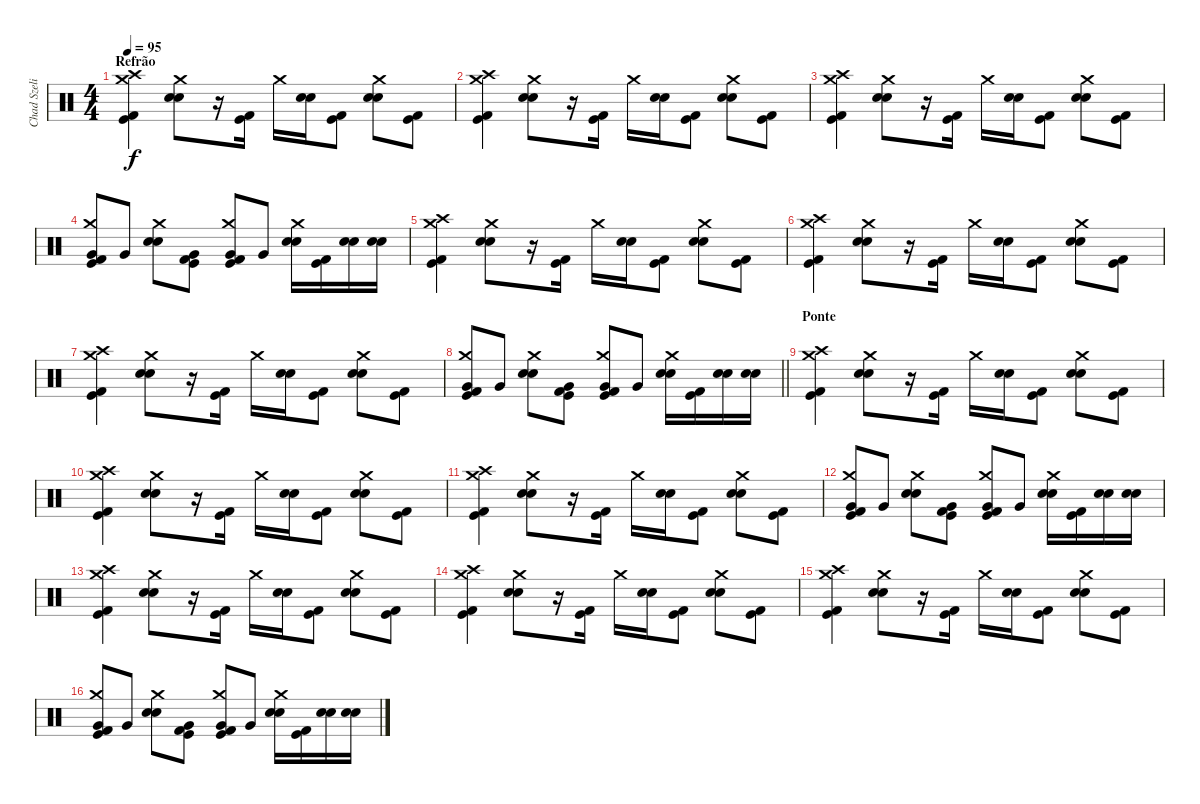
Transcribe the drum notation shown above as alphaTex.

\track ("Chad Szeliga" "Chad Szeli") {instrument percussion}
\staff {score}
\articulation defaults
\ts (4 4)
\section ("" "Refrão")
\tempo 95
\clef neutral
\ks c
("Crash high (hit)" "Kick (hit) 2" "Kick (hit)" "Crash medium (hit)").4{dy f} ("Crash medium (hit)" "Snare (hit) 2" "Snare (hit) 2").8 r.16 ("Kick (hit) 2" "Kick (hit)").16{beam Down} "Crash medium (hit)".16 ("Snare (hit) 2" "Snare (hit) 2").16 ("Kick (hit) 2" "Kick (hit)").8 ("Crash medium (hit)" "Snare (hit) 2" "Snare (hit) 2").8 ("Kick (hit) 2" "Kick (hit)").8 |
("Crash high (hit)" "Kick (hit) 2" "Kick (hit)" "Crash medium (hit)").4 ("Crash medium (hit)" "Snare (hit) 2" "Snare (hit) 2").8 r.16 ("Kick (hit) 2" "Kick (hit)").16{beam Down} "Crash medium (hit)".16 ("Snare (hit) 2" "Snare (hit) 2").16 ("Kick (hit) 2" "Kick (hit)").8 ("Crash medium (hit)" "Snare (hit) 2" "Snare (hit) 2").8 ("Kick (hit) 2" "Kick (hit)").8 |
("Crash high (hit)" "Kick (hit) 2" "Kick (hit)" "Crash medium (hit)").4 ("Crash medium (hit)" "Snare (hit) 2" "Snare (hit) 2").8 r.16 ("Kick (hit) 2" "Kick (hit)").16{beam Down} "Crash medium (hit)".16 ("Snare (hit) 2" "Snare (hit) 2").16 ("Kick (hit) 2" "Kick (hit)").8 ("Crash medium (hit)" "Snare (hit) 2" "Snare (hit) 2").8 ("Kick (hit) 2" "Kick (hit)").8 |
("Crash medium (hit)" "Kick (hit) 2" "Kick (hit)" "Very Low Tom (hit)").8 "Very Low Tom (hit)".8 ("Crash medium (hit)" "Snare (hit) 2" "Snare (hit) 2").8 ("Kick (hit) 2" "Kick (hit)" "Very Low Tom (hit)").8 ("Crash medium (hit)" "Kick (hit) 2" "Kick (hit)" "Very Low Tom (hit)").8 "Very Low Tom (hit)".8 ("Crash medium (hit)" "Snare (hit) 2" "Snare (hit) 2").16 ("Kick (hit) 2" "Kick (hit)").16 ("Snare (hit) 2" "Snare (hit) 2").16 ("Snare (hit) 2" "Snare (hit) 2").16 |
("Crash high (hit)" "Kick (hit) 2" "Kick (hit)" "Crash medium (hit)").4 ("Crash medium (hit)" "Snare (hit) 2" "Snare (hit) 2").8 r.16 ("Kick (hit) 2" "Kick (hit)").16{beam Down} "Crash medium (hit)".16 ("Snare (hit) 2" "Snare (hit) 2").16 ("Kick (hit) 2" "Kick (hit)").8 ("Crash medium (hit)" "Snare (hit) 2" "Snare (hit) 2").8 ("Kick (hit) 2" "Kick (hit)").8 |
("Crash high (hit)" "Kick (hit) 2" "Kick (hit)" "Crash medium (hit)").4 ("Crash medium (hit)" "Snare (hit) 2" "Snare (hit) 2").8 r.16 ("Kick (hit) 2" "Kick (hit)").16{beam Down} "Crash medium (hit)".16 ("Snare (hit) 2" "Snare (hit) 2").16 ("Kick (hit) 2" "Kick (hit)").8 ("Crash medium (hit)" "Snare (hit) 2" "Snare (hit) 2").8 ("Kick (hit) 2" "Kick (hit)").8 |
("Crash high (hit)" "Kick (hit) 2" "Kick (hit)" "Crash medium (hit)").4 ("Crash medium (hit)" "Snare (hit) 2" "Snare (hit) 2").8 r.16 ("Kick (hit) 2" "Kick (hit)").16{beam Down} "Crash medium (hit)".16 ("Snare (hit) 2" "Snare (hit) 2").16 ("Kick (hit) 2" "Kick (hit)").8 ("Crash medium (hit)" "Snare (hit) 2" "Snare (hit) 2").8 ("Kick (hit) 2" "Kick (hit)").8 |
\barLineRight lightlight
("Crash medium (hit)" "Kick (hit) 2" "Kick (hit)" "Very Low Tom (hit)").8 "Very Low Tom (hit)".8 ("Crash medium (hit)" "Snare (hit) 2" "Snare (hit) 2").8 ("Kick (hit) 2" "Kick (hit)" "Very Low Tom (hit)").8 ("Crash medium (hit)" "Kick (hit) 2" "Kick (hit)" "Very Low Tom (hit)").8 "Very Low Tom (hit)".8 ("Crash medium (hit)" "Snare (hit) 2" "Snare (hit) 2").16 ("Kick (hit) 2" "Kick (hit)").16 ("Snare (hit) 2" "Snare (hit) 2").16 ("Snare (hit) 2" "Snare (hit) 2").16 |
\section ("" "Ponte")
("Crash high (hit)" "Kick (hit) 2" "Kick (hit)" "Crash medium (hit)").4 ("Crash medium (hit)" "Snare (hit) 2" "Snare (hit) 2").8 r.16 ("Kick (hit) 2" "Kick (hit)").16{beam Down} "Crash medium (hit)".16 ("Snare (hit) 2" "Snare (hit) 2").16 ("Kick (hit) 2" "Kick (hit)").8 ("Crash medium (hit)" "Snare (hit) 2" "Snare (hit) 2").8 ("Kick (hit) 2" "Kick (hit)").8 |
("Crash high (hit)" "Kick (hit) 2" "Kick (hit)" "Crash medium (hit)").4 ("Crash medium (hit)" "Snare (hit) 2" "Snare (hit) 2").8 r.16 ("Kick (hit) 2" "Kick (hit)").16{beam Down} "Crash medium (hit)".16 ("Snare (hit) 2" "Snare (hit) 2").16 ("Kick (hit) 2" "Kick (hit)").8 ("Crash medium (hit)" "Snare (hit) 2" "Snare (hit) 2").8 ("Kick (hit) 2" "Kick (hit)").8 |
("Crash high (hit)" "Kick (hit) 2" "Kick (hit)" "Crash medium (hit)").4 ("Crash medium (hit)" "Snare (hit) 2" "Snare (hit) 2").8 r.16 ("Kick (hit) 2" "Kick (hit)").16{beam Down} "Crash medium (hit)".16 ("Snare (hit) 2" "Snare (hit) 2").16 ("Kick (hit) 2" "Kick (hit)").8 ("Crash medium (hit)" "Snare (hit) 2" "Snare (hit) 2").8 ("Kick (hit) 2" "Kick (hit)").8 |
("Crash medium (hit)" "Kick (hit) 2" "Kick (hit)" "Very Low Tom (hit)").8 "Very Low Tom (hit)".8 ("Crash medium (hit)" "Snare (hit) 2" "Snare (hit) 2").8 ("Kick (hit) 2" "Kick (hit)" "Very Low Tom (hit)").8 ("Crash medium (hit)" "Kick (hit) 2" "Kick (hit)" "Very Low Tom (hit)").8 "Very Low Tom (hit)".8 ("Crash medium (hit)" "Snare (hit) 2" "Snare (hit) 2").16 ("Kick (hit) 2" "Kick (hit)").16 ("Snare (hit) 2" "Snare (hit) 2").16 ("Snare (hit) 2" "Snare (hit) 2").16 |
("Crash high (hit)" "Kick (hit) 2" "Kick (hit)" "Crash medium (hit)").4 ("Crash medium (hit)" "Snare (hit) 2" "Snare (hit) 2").8 r.16 ("Kick (hit) 2" "Kick (hit)").16{beam Down} "Crash medium (hit)".16 ("Snare (hit) 2" "Snare (hit) 2").16 ("Kick (hit) 2" "Kick (hit)").8 ("Crash medium (hit)" "Snare (hit) 2" "Snare (hit) 2").8 ("Kick (hit) 2" "Kick (hit)").8 |
("Crash high (hit)" "Kick (hit) 2" "Kick (hit)" "Crash medium (hit)").4 ("Crash medium (hit)" "Snare (hit) 2" "Snare (hit) 2").8 r.16 ("Kick (hit) 2" "Kick (hit)").16{beam Down} "Crash medium (hit)".16 ("Snare (hit) 2" "Snare (hit) 2").16 ("Kick (hit) 2" "Kick (hit)").8 ("Crash medium (hit)" "Snare (hit) 2" "Snare (hit) 2").8 ("Kick (hit) 2" "Kick (hit)").8 |
("Crash high (hit)" "Kick (hit) 2" "Kick (hit)" "Crash medium (hit)").4 ("Crash medium (hit)" "Snare (hit) 2" "Snare (hit) 2").8 r.16 ("Kick (hit) 2" "Kick (hit)").16{beam Down} "Crash medium (hit)".16 ("Snare (hit) 2" "Snare (hit) 2").16 ("Kick (hit) 2" "Kick (hit)").8 ("Crash medium (hit)" "Snare (hit) 2" "Snare (hit) 2").8 ("Kick (hit) 2" "Kick (hit)").8 |
("Crash medium (hit)" "Kick (hit) 2" "Kick (hit)" "Very Low Tom (hit)").8 "Very Low Tom (hit)".8 ("Crash medium (hit)" "Snare (hit) 2" "Snare (hit) 2").8 ("Kick (hit) 2" "Kick (hit)" "Very Low Tom (hit)").8 ("Crash medium (hit)" "Kick (hit) 2" "Kick (hit)" "Very Low Tom (hit)").8 "Very Low Tom (hit)".8 ("Crash medium (hit)" "Snare (hit) 2" "Snare (hit) 2").16 ("Kick (hit) 2" "Kick (hit)").16 ("Snare (hit) 2" "Snare (hit) 2").16 ("Snare (hit) 2" "Snare (hit) 2").16
